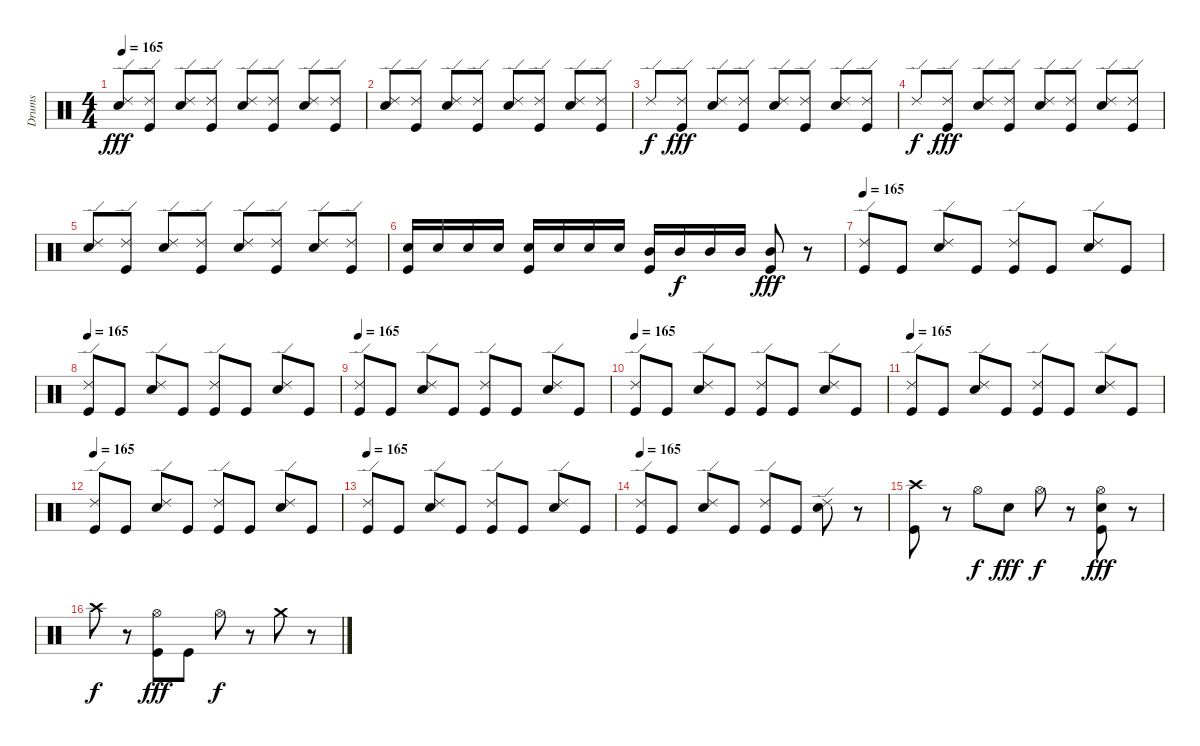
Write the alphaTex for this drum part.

\track ("Drums" "Drums") {instrument percussion}
\staff {score}
\articulation defaults
\ts (4 4)
\tempo 165
\clef neutral
\ks c
("Ride (edge) 2" "Snare (hit) 2").8{dy fff} ("Ride (edge) 2" "Kick (hit)").8 ("Ride (edge) 2" "Snare (hit) 2").8 ("Ride (edge) 2" "Kick (hit)").8 ("Ride (edge) 2" "Snare (hit) 2").8 ("Ride (edge) 2" "Kick (hit)").8 ("Ride (edge) 2" "Snare (hit) 2").8 ("Ride (edge) 2" "Kick (hit)").8 |
("Ride (edge) 2" "Snare (hit) 2").8 ("Ride (edge) 2" "Kick (hit)").8 ("Ride (edge) 2" "Snare (hit) 2").8 ("Ride (edge) 2" "Kick (hit)").8 ("Ride (edge) 2" "Snare (hit) 2").8 ("Ride (edge) 2" "Kick (hit)").8 ("Ride (edge) 2" "Snare (hit) 2").8 ("Ride (edge) 2" "Kick (hit)").8 |
"Ride (edge) 2".8{dy f} ("Ride (edge) 2" "Kick (hit)").8{dy fff} ("Ride (edge) 2" "Snare (hit) 2").8 ("Ride (edge) 2" "Kick (hit)").8 ("Ride (edge) 2" "Snare (hit) 2").8 ("Ride (edge) 2" "Kick (hit)").8 ("Ride (edge) 2" "Snare (hit) 2").8 ("Ride (edge) 2" "Kick (hit)").8 |
"Ride (edge) 2".8{dy f} ("Ride (edge) 2" "Kick (hit)").8{dy fff} ("Ride (edge) 2" "Snare (hit) 2").8 ("Ride (edge) 2" "Kick (hit)").8 ("Ride (edge) 2" "Snare (hit) 2").8 ("Ride (edge) 2" "Kick (hit)").8 ("Ride (edge) 2" "Snare (hit) 2").8 ("Ride (edge) 2" "Kick (hit)").8 |
("Ride (edge) 2" "Snare (hit) 2").8 ("Ride (edge) 2" "Kick (hit)").8 ("Ride (edge) 2" "Snare (hit) 2").8 ("Ride (edge) 2" "Kick (hit)").8 ("Ride (edge) 2" "Snare (hit) 2").8 ("Ride (edge) 2" "Kick (hit)").8 ("Ride (edge) 2" "Snare (hit) 2").8 ("Ride (edge) 2" "Kick (hit)").8 |
("Snare (hit) 2" "Kick (hit)").16 "Snare (hit) 2".16 "Snare (hit) 2".16 "Snare (hit) 2".16 ("Snare (hit) 2" "Kick (hit)").16 "Snare (hit) 2".16 "Snare (hit) 2".16 "Snare (hit) 2".16 ("Mid Tom (hit)" "Kick (hit)").16 "Mid Tom (hit)".16{dy f} "Mid Tom (hit)".16 "Mid Tom (hit)".16 ("Mid Tom (hit)" "Kick (hit)").8{dy fff} r.8 |
\tempo 165
("Ride (edge) 2" "Kick (hit)").8 "Kick (hit)".8 ("Ride (edge) 2" "Snare (hit) 2").8 "Kick (hit)".8 ("Ride (edge) 2" "Kick (hit)").8 "Kick (hit)".8 ("Ride (edge) 2" "Snare (hit) 2").8 "Kick (hit)".8 |
\tempo 165
("Ride (edge) 2" "Kick (hit)").8 "Kick (hit)".8 ("Ride (edge) 2" "Snare (hit) 2").8 "Kick (hit)".8 ("Ride (edge) 2" "Kick (hit)").8 "Kick (hit)".8 ("Ride (edge) 2" "Snare (hit) 2").8 "Kick (hit)".8 |
\tempo 165
("Ride (edge) 2" "Kick (hit)").8 "Kick (hit)".8 ("Ride (edge) 2" "Snare (hit) 2").8 "Kick (hit)".8 ("Ride (edge) 2" "Kick (hit)").8 "Kick (hit)".8 ("Ride (edge) 2" "Snare (hit) 2").8 "Kick (hit)".8 |
\tempo 165
("Ride (edge) 2" "Kick (hit)").8 "Kick (hit)".8 ("Ride (edge) 2" "Snare (hit) 2").8 "Kick (hit)".8 ("Ride (edge) 2" "Kick (hit)").8 "Kick (hit)".8 ("Ride (edge) 2" "Snare (hit) 2").8 "Kick (hit)".8 |
\tempo 165
("Ride (edge) 2" "Kick (hit)").8 "Kick (hit)".8 ("Ride (edge) 2" "Snare (hit) 2").8 "Kick (hit)".8 ("Ride (edge) 2" "Kick (hit)").8 "Kick (hit)".8 ("Ride (edge) 2" "Snare (hit) 2").8 "Kick (hit)".8 |
\tempo 165
("Ride (edge) 2" "Kick (hit)").8 "Kick (hit)".8 ("Ride (edge) 2" "Snare (hit) 2").8 "Kick (hit)".8 ("Ride (edge) 2" "Kick (hit)").8 "Kick (hit)".8 ("Ride (edge) 2" "Snare (hit) 2").8 "Kick (hit)".8 |
\tempo 165
("Ride (edge) 2" "Kick (hit)").8 "Kick (hit)".8 ("Ride (edge) 2" "Snare (hit) 2").8 "Kick (hit)".8 ("Ride (edge) 2" "Kick (hit)").8 "Kick (hit)".8 ("Ride (edge) 2" "Snare (hit) 2").8 "Kick (hit)".8 |
\tempo 165
("Ride (edge) 2" "Kick (hit)").8 "Kick (hit)".8 ("Ride (edge) 2" "Snare (hit) 2").8 "Kick (hit)".8 ("Ride (edge) 2" "Kick (hit)").8 "Kick (hit)".8 ("Ride (edge) 2" "Snare (hit) 2").8 r.8 |
("Crash high (hit)" "Kick (hit)").8 r.8 "Hi-Hat (open)".8{dy f} "Snare (hit) 2".8{dy fff} "Hi-Hat (open)".8{dy f} r.8 ("Hi-Hat (open)" "Snare (hit) 2" "Kick (hit)").8{dy fff} r.8 |
"Crash high (hit)".8{dy f} r.8 ("Hi-Hat (open)" "Kick (hit)").8{dy fff} "Kick (hit)".8 "Hi-Hat (open)".8{dy f} r.8 "Crash medium (hit)".8 r.8
